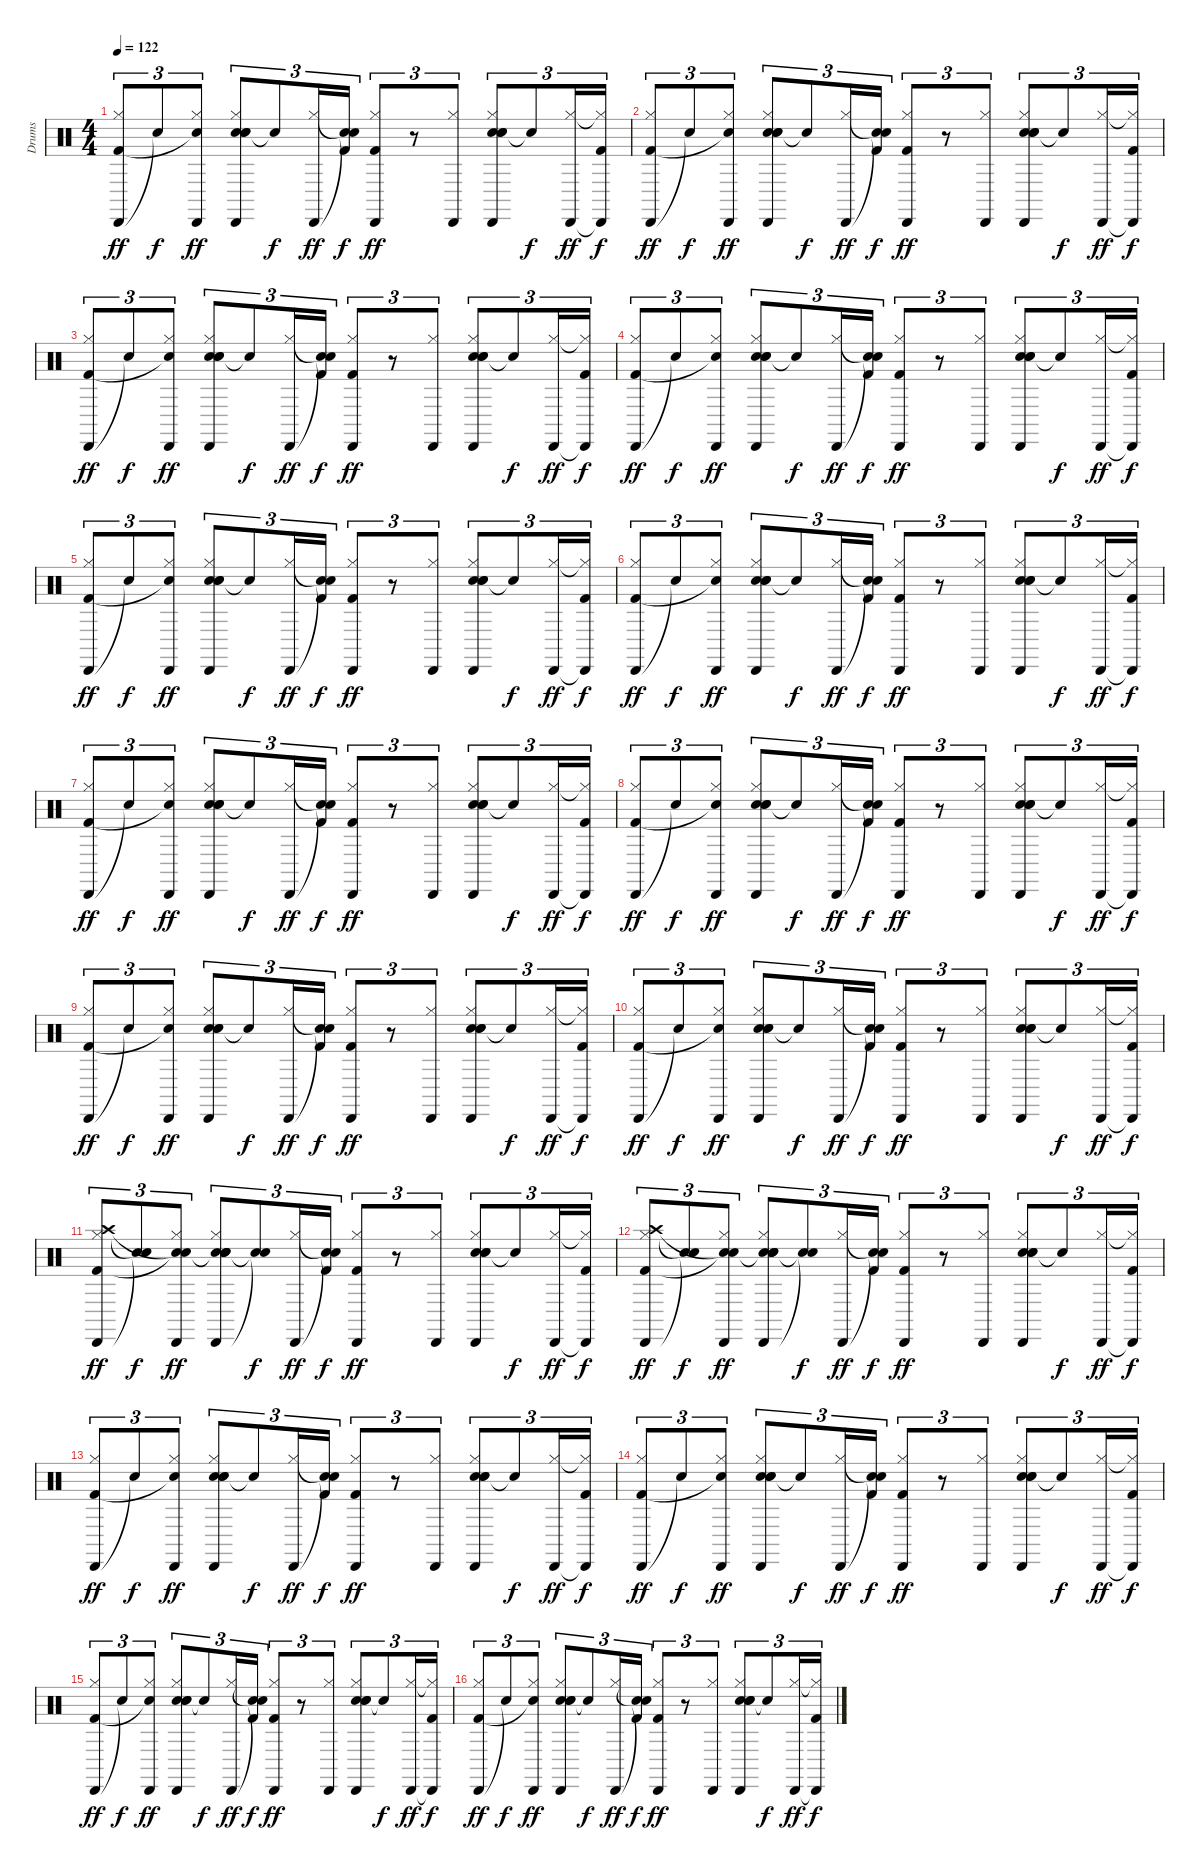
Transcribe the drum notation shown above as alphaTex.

\track ("Drums" "Drums") {instrument percussion}
\staff {score}
\articulation defaults
\ts (4 4)
\tempo 122
\clef neutral
\ks c
("Cabasa (hit)" "Hi-Hat (closed)" "Kick (hit) 2").8{tu (3 2) dy ff} "Snare (hit)"{t}.8{tu (3 2) dy f} ("Cabasa (hit)" "Hi-Hat (closed)" "Snare (hit)"{t}).8{tu (3 2) dy ff} ("Hand Clap (hit)" "Cabasa (hit)" "Hi-Hat (closed)" "Snare (hit) 2" "Hand Clap (hit)").8{tu (3 2)} "Snare (hit)"{t}.8{tu (3 2) dy f} ("Cabasa (hit)" "Hi-Hat (closed)").16{tu (3 2) dy ff} ("Snare (hit)"{t} "Snare (hit)"{t} "Kick (hit) 2").16{tu (3 2) dy f} ("Cabasa (hit)" "Hi-Hat (closed)" "Kick (hit) 2").8{tu (3 2) dy ff} r.8{tu (3 2)} ("Cabasa (hit)" "Hi-Hat (closed)").8{tu (3 2)} ("Hand Clap (hit)" "Cabasa (hit)" "Hi-Hat (closed)" "Snare (hit) 2" "Hand Clap (hit)").8{tu (3 2)} "Snare (hit)"{t}.8{tu (3 2) dy f} ("Cabasa (hit)" "Hi-Hat (closed)").16{tu (3 2) dy ff} ("Cabasa (hit)"{t} "Hi-Hat (closed)"{t} "Kick (hit) 2").16{tu (3 2) dy f} |
("Cabasa (hit)" "Hi-Hat (closed)" "Kick (hit) 2").8{tu (3 2) dy ff} "Snare (hit)"{t}.8{tu (3 2) dy f} ("Cabasa (hit)" "Hi-Hat (closed)" "Snare (hit)"{t}).8{tu (3 2) dy ff} ("Hand Clap (hit)" "Cabasa (hit)" "Hi-Hat (closed)" "Snare (hit) 2" "Hand Clap (hit)").8{tu (3 2)} "Snare (hit)"{t}.8{tu (3 2) dy f} ("Cabasa (hit)" "Hi-Hat (closed)").16{tu (3 2) dy ff} ("Snare (hit)"{t} "Snare (hit)"{t} "Kick (hit) 2").16{tu (3 2) dy f} ("Cabasa (hit)" "Hi-Hat (closed)" "Kick (hit) 2").8{tu (3 2) dy ff} r.8{tu (3 2)} ("Cabasa (hit)" "Hi-Hat (closed)").8{tu (3 2)} ("Hand Clap (hit)" "Cabasa (hit)" "Hi-Hat (closed)" "Snare (hit) 2" "Hand Clap (hit)").8{tu (3 2)} "Snare (hit)"{t}.8{tu (3 2) dy f} ("Cabasa (hit)" "Hi-Hat (closed)").16{tu (3 2) dy ff} ("Cabasa (hit)"{t} "Hi-Hat (closed)"{t} "Kick (hit) 2").16{tu (3 2) dy f} |
("Cabasa (hit)" "Hi-Hat (closed)" "Kick (hit) 2").8{tu (3 2) dy ff} "Snare (hit)"{t}.8{tu (3 2) dy f} ("Cabasa (hit)" "Hi-Hat (closed)" "Snare (hit)"{t}).8{tu (3 2) dy ff} ("Hand Clap (hit)" "Cabasa (hit)" "Hi-Hat (closed)" "Snare (hit) 2" "Hand Clap (hit)").8{tu (3 2)} "Snare (hit)"{t}.8{tu (3 2) dy f} ("Cabasa (hit)" "Hi-Hat (closed)").16{tu (3 2) dy ff} ("Snare (hit)"{t} "Snare (hit)"{t} "Kick (hit) 2").16{tu (3 2) dy f} ("Cabasa (hit)" "Hi-Hat (closed)" "Kick (hit) 2").8{tu (3 2) dy ff} r.8{tu (3 2)} ("Cabasa (hit)" "Hi-Hat (closed)").8{tu (3 2)} ("Hand Clap (hit)" "Cabasa (hit)" "Hi-Hat (closed)" "Snare (hit) 2" "Hand Clap (hit)").8{tu (3 2)} "Snare (hit)"{t}.8{tu (3 2) dy f} ("Cabasa (hit)" "Hi-Hat (closed)").16{tu (3 2) dy ff} ("Cabasa (hit)"{t} "Hi-Hat (closed)"{t} "Kick (hit) 2").16{tu (3 2) dy f} |
("Cabasa (hit)" "Hi-Hat (closed)" "Kick (hit) 2").8{tu (3 2) dy ff} "Snare (hit)"{t}.8{tu (3 2) dy f} ("Cabasa (hit)" "Hi-Hat (closed)" "Snare (hit)"{t}).8{tu (3 2) dy ff} ("Hand Clap (hit)" "Cabasa (hit)" "Hi-Hat (closed)" "Snare (hit) 2" "Hand Clap (hit)").8{tu (3 2)} "Snare (hit)"{t}.8{tu (3 2) dy f} ("Cabasa (hit)" "Hi-Hat (closed)").16{tu (3 2) dy ff} ("Snare (hit)"{t} "Snare (hit)"{t} "Kick (hit) 2").16{tu (3 2) dy f} ("Cabasa (hit)" "Hi-Hat (closed)" "Kick (hit) 2").8{tu (3 2) dy ff} r.8{tu (3 2)} ("Cabasa (hit)" "Hi-Hat (closed)").8{tu (3 2)} ("Hand Clap (hit)" "Cabasa (hit)" "Hi-Hat (closed)" "Snare (hit) 2" "Hand Clap (hit)").8{tu (3 2)} "Snare (hit)"{t}.8{tu (3 2) dy f} ("Cabasa (hit)" "Hi-Hat (closed)").16{tu (3 2) dy ff} ("Cabasa (hit)"{t} "Hi-Hat (closed)"{t} "Kick (hit) 2").16{tu (3 2) dy f} |
("Cabasa (hit)" "Hi-Hat (closed)" "Kick (hit) 2").8{tu (3 2) dy ff} "Snare (hit)"{t}.8{tu (3 2) dy f} ("Cabasa (hit)" "Hi-Hat (closed)" "Snare (hit)"{t}).8{tu (3 2) dy ff} ("Hand Clap (hit)" "Cabasa (hit)" "Hi-Hat (closed)" "Snare (hit) 2" "Hand Clap (hit)").8{tu (3 2)} "Snare (hit)"{t}.8{tu (3 2) dy f} ("Cabasa (hit)" "Hi-Hat (closed)").16{tu (3 2) dy ff} ("Snare (hit)"{t} "Snare (hit)"{t} "Kick (hit) 2").16{tu (3 2) dy f} ("Cabasa (hit)" "Hi-Hat (closed)" "Kick (hit) 2").8{tu (3 2) dy ff} r.8{tu (3 2)} ("Cabasa (hit)" "Hi-Hat (closed)").8{tu (3 2)} ("Hand Clap (hit)" "Cabasa (hit)" "Hi-Hat (closed)" "Snare (hit) 2" "Hand Clap (hit)").8{tu (3 2)} "Snare (hit)"{t}.8{tu (3 2) dy f} ("Cabasa (hit)" "Hi-Hat (closed)").16{tu (3 2) dy ff} ("Cabasa (hit)"{t} "Hi-Hat (closed)"{t} "Kick (hit) 2").16{tu (3 2) dy f} |
("Cabasa (hit)" "Hi-Hat (closed)" "Kick (hit) 2").8{tu (3 2) dy ff} "Snare (hit)"{t}.8{tu (3 2) dy f} ("Cabasa (hit)" "Hi-Hat (closed)" "Snare (hit)"{t}).8{tu (3 2) dy ff} ("Hand Clap (hit)" "Cabasa (hit)" "Hi-Hat (closed)" "Snare (hit) 2" "Hand Clap (hit)").8{tu (3 2)} "Snare (hit)"{t}.8{tu (3 2) dy f} ("Cabasa (hit)" "Hi-Hat (closed)").16{tu (3 2) dy ff} ("Snare (hit)"{t} "Snare (hit)"{t} "Kick (hit) 2").16{tu (3 2) dy f} ("Cabasa (hit)" "Hi-Hat (closed)" "Kick (hit) 2").8{tu (3 2) dy ff} r.8{tu (3 2)} ("Cabasa (hit)" "Hi-Hat (closed)").8{tu (3 2)} ("Hand Clap (hit)" "Cabasa (hit)" "Hi-Hat (closed)" "Snare (hit) 2" "Hand Clap (hit)").8{tu (3 2)} "Snare (hit)"{t}.8{tu (3 2) dy f} ("Cabasa (hit)" "Hi-Hat (closed)").16{tu (3 2) dy ff} ("Cabasa (hit)"{t} "Hi-Hat (closed)"{t} "Kick (hit) 2").16{tu (3 2) dy f} |
("Cabasa (hit)" "Hi-Hat (closed)" "Kick (hit) 2").8{tu (3 2) dy ff} "Snare (hit)"{t}.8{tu (3 2) dy f} ("Cabasa (hit)" "Hi-Hat (closed)" "Snare (hit)"{t}).8{tu (3 2) dy ff} ("Hand Clap (hit)" "Cabasa (hit)" "Hi-Hat (closed)" "Snare (hit) 2" "Hand Clap (hit)").8{tu (3 2)} "Snare (hit)"{t}.8{tu (3 2) dy f} ("Cabasa (hit)" "Hi-Hat (closed)").16{tu (3 2) dy ff} ("Snare (hit)"{t} "Snare (hit)"{t} "Kick (hit) 2").16{tu (3 2) dy f} ("Cabasa (hit)" "Hi-Hat (closed)" "Kick (hit) 2").8{tu (3 2) dy ff} r.8{tu (3 2)} ("Cabasa (hit)" "Hi-Hat (closed)").8{tu (3 2)} ("Hand Clap (hit)" "Cabasa (hit)" "Hi-Hat (closed)" "Snare (hit) 2" "Hand Clap (hit)").8{tu (3 2)} "Snare (hit)"{t}.8{tu (3 2) dy f} ("Cabasa (hit)" "Hi-Hat (closed)").16{tu (3 2) dy ff} ("Cabasa (hit)"{t} "Hi-Hat (closed)"{t} "Kick (hit) 2").16{tu (3 2) dy f} |
("Cabasa (hit)" "Hi-Hat (closed)" "Kick (hit) 2").8{tu (3 2) dy ff} "Snare (hit)"{t}.8{tu (3 2) dy f} ("Cabasa (hit)" "Hi-Hat (closed)" "Snare (hit)"{t}).8{tu (3 2) dy ff} ("Hand Clap (hit)" "Cabasa (hit)" "Hi-Hat (closed)" "Snare (hit) 2" "Hand Clap (hit)").8{tu (3 2)} "Snare (hit)"{t}.8{tu (3 2) dy f} ("Cabasa (hit)" "Hi-Hat (closed)").16{tu (3 2) dy ff} ("Snare (hit)"{t} "Snare (hit)"{t} "Kick (hit) 2").16{tu (3 2) dy f} ("Cabasa (hit)" "Hi-Hat (closed)" "Kick (hit) 2").8{tu (3 2) dy ff} r.8{tu (3 2)} ("Cabasa (hit)" "Hi-Hat (closed)").8{tu (3 2)} ("Hand Clap (hit)" "Cabasa (hit)" "Hi-Hat (closed)" "Snare (hit) 2" "Hand Clap (hit)").8{tu (3 2)} "Snare (hit)"{t}.8{tu (3 2) dy f} ("Cabasa (hit)" "Hi-Hat (closed)").16{tu (3 2) dy ff} ("Cabasa (hit)"{t} "Hi-Hat (closed)"{t} "Kick (hit) 2").16{tu (3 2) dy f} |
("Cabasa (hit)" "Hi-Hat (closed)" "Kick (hit) 2").8{tu (3 2) dy ff} "Snare (hit)"{t}.8{tu (3 2) dy f} ("Cabasa (hit)" "Hi-Hat (closed)" "Snare (hit)"{t}).8{tu (3 2) dy ff} ("Hand Clap (hit)" "Cabasa (hit)" "Hi-Hat (closed)" "Snare (hit) 2" "Hand Clap (hit)").8{tu (3 2)} "Snare (hit)"{t}.8{tu (3 2) dy f} ("Cabasa (hit)" "Hi-Hat (closed)").16{tu (3 2) dy ff} ("Snare (hit)"{t} "Snare (hit)"{t} "Kick (hit) 2").16{tu (3 2) dy f} ("Cabasa (hit)" "Hi-Hat (closed)" "Kick (hit) 2").8{tu (3 2) dy ff} r.8{tu (3 2)} ("Cabasa (hit)" "Hi-Hat (closed)").8{tu (3 2)} ("Hand Clap (hit)" "Cabasa (hit)" "Hi-Hat (closed)" "Snare (hit) 2" "Hand Clap (hit)").8{tu (3 2)} "Snare (hit)"{t}.8{tu (3 2) dy f} ("Cabasa (hit)" "Hi-Hat (closed)").16{tu (3 2) dy ff} ("Cabasa (hit)"{t} "Hi-Hat (closed)"{t} "Kick (hit) 2").16{tu (3 2) dy f} |
("Cabasa (hit)" "Hi-Hat (closed)" "Kick (hit) 2").8{tu (3 2) dy ff} "Snare (hit)"{t}.8{tu (3 2) dy f} ("Cabasa (hit)" "Hi-Hat (closed)" "Snare (hit)"{t}).8{tu (3 2) dy ff} ("Hand Clap (hit)" "Cabasa (hit)" "Hi-Hat (closed)" "Snare (hit) 2" "Hand Clap (hit)").8{tu (3 2)} "Snare (hit)"{t}.8{tu (3 2) dy f} ("Cabasa (hit)" "Hi-Hat (closed)").16{tu (3 2) dy ff} ("Snare (hit)"{t} "Snare (hit)"{t} "Kick (hit) 2").16{tu (3 2) dy f} ("Cabasa (hit)" "Hi-Hat (closed)" "Kick (hit) 2").8{tu (3 2) dy ff} r.8{tu (3 2)} ("Cabasa (hit)" "Hi-Hat (closed)").8{tu (3 2)} ("Hand Clap (hit)" "Cabasa (hit)" "Hi-Hat (closed)" "Snare (hit) 2" "Hand Clap (hit)").8{tu (3 2)} "Snare (hit)"{t}.8{tu (3 2) dy f} ("Cabasa (hit)" "Hi-Hat (closed)").16{tu (3 2) dy ff} ("Cabasa (hit)"{t} "Hi-Hat (closed)"{t} "Kick (hit) 2").16{tu (3 2) dy f} |
("Cabasa (hit)" "Hi-Hat (closed)" "Crash high (hit)" "Kick (hit) 2").8{tu (3 2) dy ff} ("Snare (hit)"{t} "Snare (hit)"{t}).8{tu (3 2) dy f} ("Cabasa (hit)" "Hi-Hat (closed)" "Snare (hit)"{t} "Snare (hit)"{t}).8{tu (3 2) dy ff} ("Hand Clap (hit)" "Cabasa (hit)" "Hi-Hat (closed)" "Snare (hit)"{t} "Snare (hit) 2" "Hand Clap (hit)").8{tu (3 2)} ("Snare (hit)"{t} "Snare (hit)"{t}).8{tu (3 2) dy f} ("Cabasa (hit)" "Hi-Hat (closed)").16{tu (3 2) dy ff} ("Snare (hit)"{t} "Snare (hit)"{t} "Kick (hit) 2").16{tu (3 2) dy f} ("Cabasa (hit)" "Hi-Hat (closed)" "Kick (hit) 2").8{tu (3 2) dy ff} r.8{tu (3 2)} ("Cabasa (hit)" "Hi-Hat (closed)").8{tu (3 2)} ("Hand Clap (hit)" "Cabasa (hit)" "Hi-Hat (closed)" "Snare (hit) 2" "Hand Clap (hit)").8{tu (3 2)} "Snare (hit)"{t}.8{tu (3 2) dy f} ("Cabasa (hit)" "Hi-Hat (closed)").16{tu (3 2) dy ff} ("Cabasa (hit)"{t} "Hi-Hat (closed)"{t} "Kick (hit) 2").16{tu (3 2) dy f} |
("Cabasa (hit)" "Hi-Hat (closed)" "Crash high (hit)" "Kick (hit) 2").8{tu (3 2) dy ff} ("Snare (hit)"{t} "Snare (hit)"{t}).8{tu (3 2) dy f} ("Cabasa (hit)" "Hi-Hat (closed)" "Snare (hit)"{t} "Snare (hit)"{t}).8{tu (3 2) dy ff} ("Hand Clap (hit)" "Cabasa (hit)" "Hi-Hat (closed)" "Snare (hit)"{t} "Snare (hit) 2" "Hand Clap (hit)").8{tu (3 2)} ("Snare (hit)"{t} "Snare (hit)"{t}).8{tu (3 2) dy f} ("Cabasa (hit)" "Hi-Hat (closed)").16{tu (3 2) dy ff} ("Snare (hit)"{t} "Snare (hit)"{t} "Kick (hit) 2").16{tu (3 2) dy f} ("Cabasa (hit)" "Hi-Hat (closed)" "Kick (hit) 2").8{tu (3 2) dy ff} r.8{tu (3 2)} ("Cabasa (hit)" "Hi-Hat (closed)").8{tu (3 2)} ("Hand Clap (hit)" "Cabasa (hit)" "Hi-Hat (closed)" "Snare (hit) 2" "Hand Clap (hit)").8{tu (3 2)} "Snare (hit)"{t}.8{tu (3 2) dy f} ("Cabasa (hit)" "Hi-Hat (closed)").16{tu (3 2) dy ff} ("Cabasa (hit)"{t} "Hi-Hat (closed)"{t} "Kick (hit) 2").16{tu (3 2) dy f} |
("Cabasa (hit)" "Hi-Hat (closed)" "Kick (hit) 2").8{tu (3 2) dy ff} "Snare (hit)"{t}.8{tu (3 2) dy f} ("Cabasa (hit)" "Hi-Hat (closed)" "Snare (hit)"{t}).8{tu (3 2) dy ff} ("Hand Clap (hit)" "Cabasa (hit)" "Hi-Hat (closed)" "Snare (hit) 2" "Hand Clap (hit)").8{tu (3 2)} "Snare (hit)"{t}.8{tu (3 2) dy f} ("Cabasa (hit)" "Hi-Hat (closed)").16{tu (3 2) dy ff} ("Snare (hit)"{t} "Snare (hit)"{t} "Kick (hit) 2").16{tu (3 2) dy f} ("Cabasa (hit)" "Hi-Hat (closed)" "Kick (hit) 2").8{tu (3 2) dy ff} r.8{tu (3 2)} ("Cabasa (hit)" "Hi-Hat (closed)").8{tu (3 2)} ("Hand Clap (hit)" "Cabasa (hit)" "Hi-Hat (closed)" "Snare (hit) 2" "Hand Clap (hit)").8{tu (3 2)} "Snare (hit)"{t}.8{tu (3 2) dy f} ("Cabasa (hit)" "Hi-Hat (closed)").16{tu (3 2) dy ff} ("Cabasa (hit)"{t} "Hi-Hat (closed)"{t} "Kick (hit) 2").16{tu (3 2) dy f} |
("Cabasa (hit)" "Hi-Hat (closed)" "Kick (hit) 2").8{tu (3 2) dy ff} "Snare (hit)"{t}.8{tu (3 2) dy f} ("Cabasa (hit)" "Hi-Hat (closed)" "Snare (hit)"{t}).8{tu (3 2) dy ff} ("Hand Clap (hit)" "Cabasa (hit)" "Hi-Hat (closed)" "Snare (hit) 2" "Hand Clap (hit)").8{tu (3 2)} "Snare (hit)"{t}.8{tu (3 2) dy f} ("Cabasa (hit)" "Hi-Hat (closed)").16{tu (3 2) dy ff} ("Snare (hit)"{t} "Snare (hit)"{t} "Kick (hit) 2").16{tu (3 2) dy f} ("Cabasa (hit)" "Hi-Hat (closed)" "Kick (hit) 2").8{tu (3 2) dy ff} r.8{tu (3 2)} ("Cabasa (hit)" "Hi-Hat (closed)").8{tu (3 2)} ("Hand Clap (hit)" "Cabasa (hit)" "Hi-Hat (closed)" "Snare (hit) 2" "Hand Clap (hit)").8{tu (3 2)} "Snare (hit)"{t}.8{tu (3 2) dy f} ("Cabasa (hit)" "Hi-Hat (closed)").16{tu (3 2) dy ff} ("Cabasa (hit)"{t} "Hi-Hat (closed)"{t} "Kick (hit) 2").16{tu (3 2) dy f} |
("Cabasa (hit)" "Hi-Hat (closed)" "Kick (hit) 2").8{tu (3 2) dy ff} "Snare (hit)"{t}.8{tu (3 2) dy f} ("Cabasa (hit)" "Hi-Hat (closed)" "Snare (hit)"{t}).8{tu (3 2) dy ff} ("Hand Clap (hit)" "Cabasa (hit)" "Hi-Hat (closed)" "Snare (hit) 2" "Hand Clap (hit)").8{tu (3 2)} "Snare (hit)"{t}.8{tu (3 2) dy f} ("Cabasa (hit)" "Hi-Hat (closed)").16{tu (3 2) dy ff} ("Snare (hit)"{t} "Snare (hit)"{t} "Kick (hit) 2").16{tu (3 2) dy f} ("Cabasa (hit)" "Hi-Hat (closed)" "Kick (hit) 2").8{tu (3 2) dy ff} r.8{tu (3 2)} ("Cabasa (hit)" "Hi-Hat (closed)").8{tu (3 2)} ("Hand Clap (hit)" "Cabasa (hit)" "Hi-Hat (closed)" "Snare (hit) 2" "Hand Clap (hit)").8{tu (3 2)} "Snare (hit)"{t}.8{tu (3 2) dy f} ("Cabasa (hit)" "Hi-Hat (closed)").16{tu (3 2) dy ff} ("Cabasa (hit)"{t} "Hi-Hat (closed)"{t} "Kick (hit) 2").16{tu (3 2) dy f} |
("Cabasa (hit)" "Hi-Hat (closed)" "Kick (hit) 2").8{tu (3 2) dy ff} "Snare (hit)"{t}.8{tu (3 2) dy f} ("Cabasa (hit)" "Hi-Hat (closed)" "Snare (hit)"{t}).8{tu (3 2) dy ff} ("Hand Clap (hit)" "Cabasa (hit)" "Hi-Hat (closed)" "Snare (hit) 2" "Hand Clap (hit)").8{tu (3 2)} "Snare (hit)"{t}.8{tu (3 2) dy f} ("Cabasa (hit)" "Hi-Hat (closed)").16{tu (3 2) dy ff} ("Snare (hit)"{t} "Snare (hit)"{t} "Kick (hit) 2").16{tu (3 2) dy f} ("Cabasa (hit)" "Hi-Hat (closed)" "Kick (hit) 2").8{tu (3 2) dy ff} r.8{tu (3 2)} ("Cabasa (hit)" "Hi-Hat (closed)").8{tu (3 2)} ("Hand Clap (hit)" "Cabasa (hit)" "Hi-Hat (closed)" "Snare (hit) 2" "Hand Clap (hit)").8{tu (3 2)} "Snare (hit)"{t}.8{tu (3 2) dy f} ("Cabasa (hit)" "Hi-Hat (closed)").16{tu (3 2) dy ff} ("Cabasa (hit)"{t} "Hi-Hat (closed)"{t} "Kick (hit) 2").16{tu (3 2) dy f}
